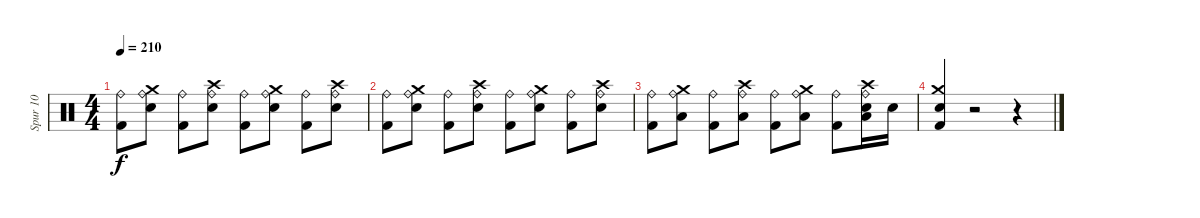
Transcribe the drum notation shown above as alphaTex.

\track ("Spur 10" "Spur 10") {instrument percussion}
\staff {score}
\articulation defaults
\ts (4 4)
\tempo 210
\clef neutral
\ks c
("Ride (bell)" "Kick (hit) 2").8{dy f} ("Crash medium (hit)" "Ride (bell)" "Electric Snare (hit)").8 ("Ride (bell)" "Kick (hit) 2").8 ("Crash high (hit)" "Ride (bell)" "Electric Snare (hit)").8 ("Ride (bell)" "Kick (hit) 2").8 ("Crash medium (hit)" "Ride (bell)" "Electric Snare (hit)").8 ("Ride (bell)" "Kick (hit) 2").8 ("Crash high (hit)" "Ride (bell)" "Electric Snare (hit)").8 |
("Ride (bell)" "Kick (hit) 2").8 ("Crash medium (hit)" "Ride (bell)" "Electric Snare (hit)").8 ("Ride (bell)" "Kick (hit) 2").8 ("Crash high (hit)" "Ride (bell)" "Electric Snare (hit)").8 ("Ride (bell)" "Kick (hit) 2").8 ("Crash medium (hit)" "Ride (bell)" "Electric Snare (hit)").8 ("Ride (bell)" "Kick (hit) 2").8 ("Crash high (hit)" "Ride (bell)" "Electric Snare (hit)").8 |
("Ride (bell)" "Kick (hit) 2").8 ("Crash medium (hit)" "Ride (bell)" "Low Floor Tom (hit)").8 ("Ride (bell)" "Kick (hit) 2").8 ("Crash high (hit)" "Ride (bell)" "Low Floor Tom (hit)").8 ("Ride (bell)" "Kick (hit) 2").8 ("Crash medium (hit)" "Ride (bell)" "Low Floor Tom (hit)").8 ("Ride (bell)" "Kick (hit) 2").8 ("Electric Snare (hit)" "Crash high (hit)" "Ride (bell)" "Low Floor Tom (hit)").16 "Electric Snare (hit)".16 |
("Electric Snare (hit)" "Kick (hit) 2" "Crash medium (hit)").4 r.2 r.4
